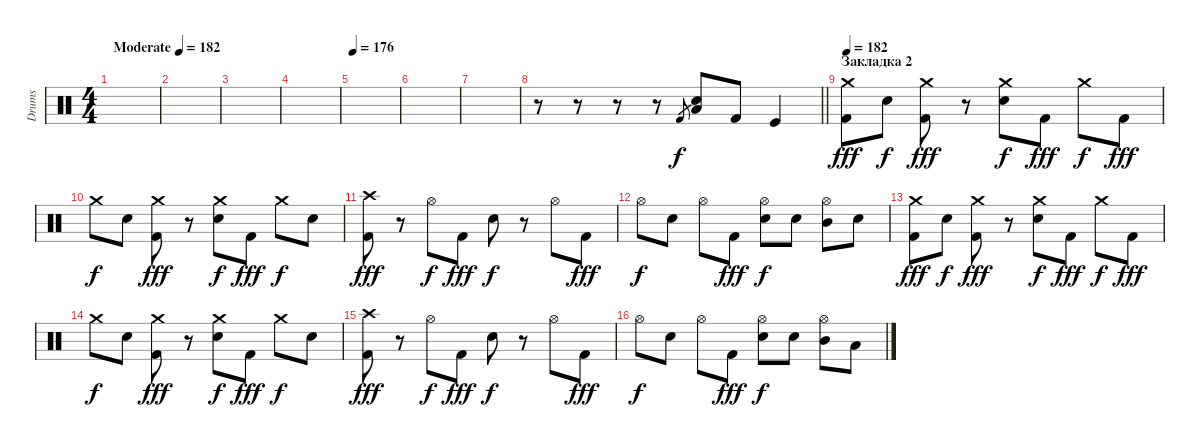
\track ("Drums" "Drums") {instrument percussion}
\staff {score}
\articulation defaults
\ts (4 4)
\tempo (182 "Moderate")
\tempo 176
\tempo (182 "Moderate")
\clef neutral
\ks c
|
|
|
|
\tempo 176
|
|
|
\barLineRight lightlight
r.8 r.8 r.8 r.8 "Kick (hit) 2".8{gr} ("Low Tom (hit)" "Snare (hit) 2").8 "Kick (hit) 2".8 "Kick (hit)".4 |
\section ("" "Закладка 2")
\tempo 182
("Crash medium (hit)" "Kick (hit) 2").8{dy fff} "Electric Snare (hit)".8{dy f} ("Crash medium (hit)" "Kick (hit) 2").8{dy fff} r.8 ("Crash medium (hit)" "Electric Snare (hit)").8{dy f} "Kick (hit) 2".8{dy fff} "Crash medium (hit)".8{dy f} "Kick (hit) 2".8{dy fff} |
"Crash medium (hit)".8{dy f} "Electric Snare (hit)".8 ("Crash medium (hit)" "Kick (hit) 2").8{dy fff} r.8 ("Crash medium (hit)" "Electric Snare (hit)").8{dy f} "Kick (hit) 2".8{dy fff} "Crash medium (hit)".8{dy f} "Electric Snare (hit)".8 |
("Crash high (hit)" "Kick (hit) 2").8{dy fff} r.8 "Hi-Hat (open)".8{dy f} "Kick (hit) 2".8{dy fff} "Electric Snare (hit)".8{dy f} r.8 "Hi-Hat (open)".8 "Kick (hit) 2".8{dy fff} |
"Hi-Hat (open)".8{dy f} "Electric Snare (hit)".8 "Hi-Hat (open)".8 "Kick (hit) 2".8{dy fff} ("Hi-Hat (open)" "Electric Snare (hit)").8{dy f} "Electric Snare (hit)".8 ("Hi-Hat (open)" "Mid Tom (hit)").8 "Electric Snare (hit)".8 |
("Crash medium (hit)" "Kick (hit) 2").8{dy fff} "Electric Snare (hit)".8{dy f} ("Crash medium (hit)" "Kick (hit) 2").8{dy fff} r.8 ("Crash medium (hit)" "Electric Snare (hit)").8{dy f} "Kick (hit) 2".8{dy fff} "Crash medium (hit)".8{dy f} "Kick (hit) 2".8{dy fff} |
"Crash medium (hit)".8{dy f} "Electric Snare (hit)".8 ("Crash medium (hit)" "Kick (hit) 2").8{dy fff} r.8 ("Crash medium (hit)" "Electric Snare (hit)").8{dy f} "Kick (hit) 2".8{dy fff} "Crash medium (hit)".8{dy f} "Electric Snare (hit)".8 |
("Crash high (hit)" "Kick (hit) 2").8{dy fff} r.8 "Hi-Hat (open)".8{dy f} "Kick (hit) 2".8{dy fff} "Electric Snare (hit)".8{dy f} r.8 "Hi-Hat (open)".8 "Kick (hit) 2".8{dy fff} |
"Hi-Hat (open)".8{dy f} "Electric Snare (hit)".8 "Hi-Hat (open)".8 "Kick (hit) 2".8{dy fff} ("Hi-Hat (open)" "Electric Snare (hit)").8{dy f} "Electric Snare (hit)".8 ("Hi-Hat (open)" "Mid Tom (hit)").8 "Low Tom (hit)".8
